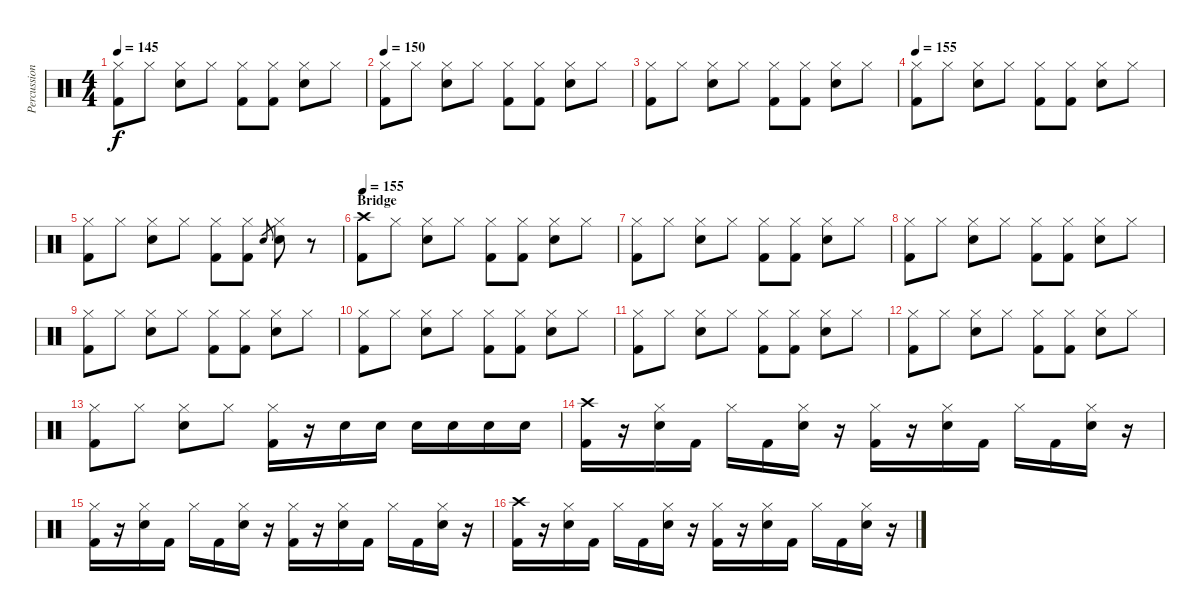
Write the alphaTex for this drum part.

\track ("Percussion" "Percussion") {instrument percussion}
\staff {score}
\articulation defaults
\ts (4 4)
\tempo 145
\clef neutral
\ks c
("Hi-Hat (closed)" "Kick (hit) 2").8{dy f} "Hi-Hat (closed)".8 ("Hi-Hat (closed)" "Snare (hit) 2").8 "Hi-Hat (closed)".8 ("Hi-Hat (closed)" "Kick (hit) 2").8 ("Hi-Hat (closed)" "Kick (hit) 2").8 ("Hi-Hat (closed)" "Snare (hit) 2").8 "Hi-Hat (closed)".8 |
\tempo 150
("Hi-Hat (closed)" "Kick (hit) 2").8 "Hi-Hat (closed)".8 ("Hi-Hat (closed)" "Snare (hit) 2").8 "Hi-Hat (closed)".8 ("Hi-Hat (closed)" "Kick (hit) 2").8 ("Hi-Hat (closed)" "Kick (hit) 2").8 ("Hi-Hat (closed)" "Snare (hit) 2").8 "Hi-Hat (closed)".8 |
("Hi-Hat (closed)" "Kick (hit) 2").8 "Hi-Hat (closed)".8 ("Hi-Hat (closed)" "Snare (hit) 2").8 "Hi-Hat (closed)".8 ("Hi-Hat (closed)" "Kick (hit) 2").8 ("Hi-Hat (closed)" "Kick (hit) 2").8 ("Hi-Hat (closed)" "Snare (hit) 2").8 "Hi-Hat (closed)".8 |
\tempo 155
("Hi-Hat (closed)" "Kick (hit) 2").8 "Hi-Hat (closed)".8 ("Hi-Hat (closed)" "Snare (hit) 2").8 "Hi-Hat (closed)".8 ("Hi-Hat (closed)" "Kick (hit) 2").8 ("Hi-Hat (closed)" "Kick (hit) 2").8 ("Hi-Hat (closed)" "Snare (hit) 2").8 "Hi-Hat (closed)".8 |
("Hi-Hat (closed)" "Kick (hit) 2").8 "Hi-Hat (closed)".8 ("Hi-Hat (closed)" "Snare (hit) 2").8 "Hi-Hat (closed)".8 ("Hi-Hat (closed)" "Kick (hit) 2").8 ("Hi-Hat (closed)" "Kick (hit) 2").8 "Snare (hit) 2".8{gr} ("Hi-Hat (closed)" "Snare (hit) 2").8 r.8 |
\section ("" "Bridge")
\tempo 155
("Crash high (hit)" "Kick (hit) 2").8 "Hi-Hat (closed)".8 ("Hi-Hat (closed)" "Snare (hit) 2").8 "Hi-Hat (closed)".8 ("Hi-Hat (closed)" "Kick (hit) 2").8 ("Hi-Hat (closed)" "Kick (hit) 2").8 ("Hi-Hat (closed)" "Snare (hit) 2").8 "Hi-Hat (closed)".8 |
("Hi-Hat (closed)" "Kick (hit) 2").8 "Hi-Hat (closed)".8 ("Hi-Hat (closed)" "Snare (hit) 2").8 "Hi-Hat (closed)".8 ("Hi-Hat (closed)" "Kick (hit) 2").8 ("Hi-Hat (closed)" "Kick (hit) 2").8 ("Hi-Hat (closed)" "Snare (hit) 2").8 "Hi-Hat (closed)".8 |
("Hi-Hat (closed)" "Kick (hit) 2").8 "Hi-Hat (closed)".8 ("Hi-Hat (closed)" "Snare (hit) 2").8 "Hi-Hat (closed)".8 ("Hi-Hat (closed)" "Kick (hit) 2").8 ("Hi-Hat (closed)" "Kick (hit) 2").8 ("Hi-Hat (closed)" "Snare (hit) 2").8 "Hi-Hat (closed)".8 |
("Hi-Hat (closed)" "Kick (hit) 2").8 "Hi-Hat (closed)".8 ("Hi-Hat (closed)" "Snare (hit) 2").8 "Hi-Hat (closed)".8 ("Hi-Hat (closed)" "Kick (hit) 2").8 ("Hi-Hat (closed)" "Kick (hit) 2").8 ("Hi-Hat (closed)" "Snare (hit) 2").8 "Hi-Hat (closed)".8 |
("Hi-Hat (closed)" "Kick (hit) 2").8 "Hi-Hat (closed)".8 ("Hi-Hat (closed)" "Snare (hit) 2").8 "Hi-Hat (closed)".8 ("Hi-Hat (closed)" "Kick (hit) 2").8 ("Hi-Hat (closed)" "Kick (hit) 2").8 ("Hi-Hat (closed)" "Snare (hit) 2").8 "Hi-Hat (closed)".8 |
("Hi-Hat (closed)" "Kick (hit) 2").8 "Hi-Hat (closed)".8 ("Hi-Hat (closed)" "Snare (hit) 2").8 "Hi-Hat (closed)".8 ("Hi-Hat (closed)" "Kick (hit) 2").8 ("Hi-Hat (closed)" "Kick (hit) 2").8 ("Hi-Hat (closed)" "Snare (hit) 2").8 "Hi-Hat (closed)".8 |
("Hi-Hat (closed)" "Kick (hit) 2").8 "Hi-Hat (closed)".8 ("Hi-Hat (closed)" "Snare (hit) 2").8 "Hi-Hat (closed)".8 ("Hi-Hat (closed)" "Kick (hit) 2").8 ("Hi-Hat (closed)" "Kick (hit) 2").8 ("Hi-Hat (closed)" "Snare (hit) 2").8 "Hi-Hat (closed)".8 |
("Hi-Hat (closed)" "Kick (hit) 2").8 "Hi-Hat (closed)".8 ("Hi-Hat (closed)" "Snare (hit) 2").8 "Hi-Hat (closed)".8 ("Hi-Hat (closed)" "Kick (hit) 2").16 r.16 "Snare (hit) 2".16 "Snare (hit) 2".16 "Snare (hit) 2".16 "Snare (hit) 2".16 "Snare (hit) 2".16 "Snare (hit) 2".16 |
("Crash high (hit)" "Kick (hit) 2").16 r.16 ("Hi-Hat (closed)" "Snare (hit) 2").16 "Kick (hit) 2".16 "Hi-Hat (closed)".16 "Kick (hit) 2".16 ("Hi-Hat (closed)" "Snare (hit) 2").16 r.16 ("Hi-Hat (closed)" "Kick (hit) 2").16 r.16 ("Hi-Hat (closed)" "Snare (hit) 2").16 "Kick (hit) 2".16 "Hi-Hat (closed)".16 "Kick (hit) 2".16 ("Hi-Hat (closed)" "Snare (hit) 2").16 r.16 |
("Hi-Hat (closed)" "Kick (hit) 2").16 r.16 ("Hi-Hat (closed)" "Snare (hit) 2").16 "Kick (hit) 2".16 "Hi-Hat (closed)".16 "Kick (hit) 2".16 ("Hi-Hat (closed)" "Snare (hit) 2").16 r.16 ("Hi-Hat (closed)" "Kick (hit) 2").16 r.16 ("Hi-Hat (closed)" "Snare (hit) 2").16 "Kick (hit) 2".16 "Hi-Hat (closed)".16 "Kick (hit) 2".16 ("Hi-Hat (closed)" "Snare (hit) 2").16 r.16 |
("Crash high (hit)" "Kick (hit) 2").16 r.16 ("Hi-Hat (closed)" "Snare (hit) 2").16 "Kick (hit) 2".16 "Hi-Hat (closed)".16 "Kick (hit) 2".16 ("Hi-Hat (closed)" "Snare (hit) 2").16 r.16 ("Hi-Hat (closed)" "Kick (hit) 2").16 r.16 ("Hi-Hat (closed)" "Snare (hit) 2").16 "Kick (hit) 2".16 "Hi-Hat (closed)".16 "Kick (hit) 2".16 ("Hi-Hat (closed)" "Snare (hit) 2").16 r.16
